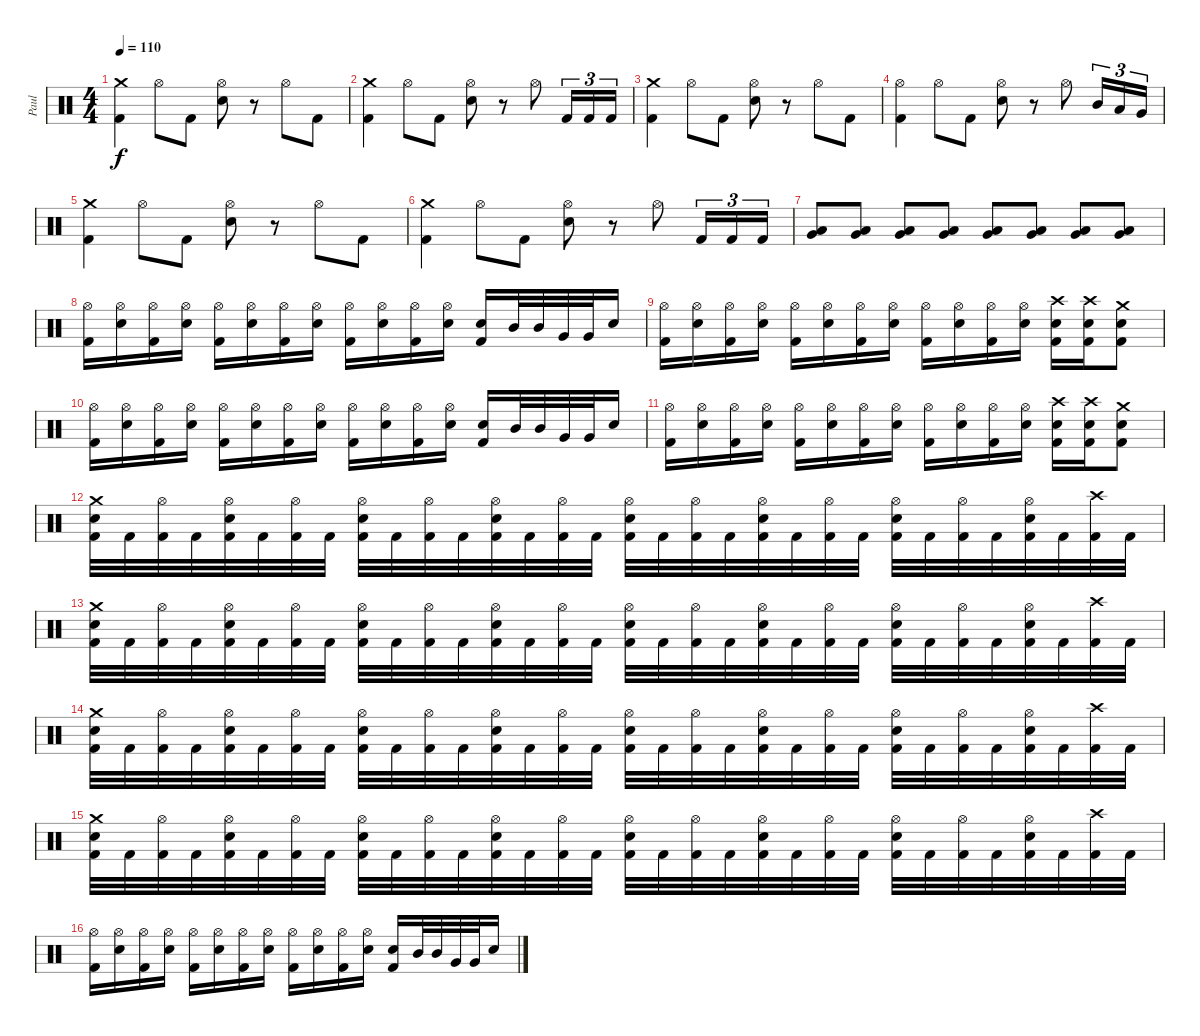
\track ("Paul" "Paul") {solo instrument percussion}
\staff {score}
\articulation defaults
\ts (4 4)
\tempo 110
\clef neutral
\ks c
("Crash medium (hit)" "Kick (hit) 2").4{dy f} "Hi-Hat (open)".8 "Kick (hit) 2".8 ("Hi-Hat (open)" "Electric Snare (hit)").8 r.8 "Hi-Hat (open)".8 "Kick (hit) 2".8 |
("Crash medium (hit)" "Kick (hit) 2").4 "Hi-Hat (open)".8 "Kick (hit) 2".8 ("Hi-Hat (open)" "Electric Snare (hit)").8 r.8 "Hi-Hat (open)".8 "Kick (hit) 2".16{tu (3 2)} "Kick (hit) 2".16{tu (3 2)} "Kick (hit) 2".16{tu (3 2)} |
("Crash medium (hit)" "Kick (hit) 2").4 "Hi-Hat (open)".8 "Kick (hit) 2".8 ("Hi-Hat (open)" "Electric Snare (hit)").8 r.8 "Hi-Hat (open)".8 "Kick (hit) 2".8 |
("Hi-Hat (open)" "Kick (hit) 2").4 "Hi-Hat (open)".8 "Kick (hit) 2".8 ("Hi-Hat (open)" "Electric Snare (hit)").8 r.8 "Hi-Hat (open)".8 "Mid Tom (hit)".16{tu (3 2)} "Low Tom (hit)".16{tu (3 2)} "Very Low Tom (hit)".16{tu (3 2)} |
("Crash medium (hit)" "Kick (hit) 2").4 "Hi-Hat (open)".8 "Kick (hit) 2".8 ("Hi-Hat (open)" "Electric Snare (hit)").8 r.8 "Hi-Hat (open)".8 "Kick (hit) 2".8 |
("Crash medium (hit)" "Kick (hit) 2").4 "Hi-Hat (open)".8 "Kick (hit) 2".8 ("Hi-Hat (open)" "Electric Snare (hit)").8 r.8 "Hi-Hat (open)".8 "Kick (hit) 2".16{tu (3 2)} "Kick (hit) 2".16{tu (3 2)} "Kick (hit) 2".16{tu (3 2)} |
("Low Floor Tom (hit)" "Very Low Tom (hit)").8 ("Low Floor Tom (hit)" "Very Low Tom (hit)").8 ("Low Floor Tom (hit)" "Very Low Tom (hit)").8 ("Low Floor Tom (hit)" "Very Low Tom (hit)").8 ("Low Floor Tom (hit)" "Very Low Tom (hit)").8 ("Low Floor Tom (hit)" "Very Low Tom (hit)").8 ("Low Floor Tom (hit)" "Very Low Tom (hit)").8 ("Low Floor Tom (hit)" "Very Low Tom (hit)").8 |
("Hi-Hat (open)" "Kick (hit) 2").16 ("Hi-Hat (open)" "Electric Snare (hit)").16 ("Hi-Hat (open)" "Kick (hit) 2").16 ("Hi-Hat (open)" "Electric Snare (hit)").16 ("Hi-Hat (open)" "Kick (hit) 2").16 ("Hi-Hat (open)" "Electric Snare (hit)").16 ("Hi-Hat (open)" "Kick (hit) 2").16 ("Hi-Hat (open)" "Electric Snare (hit)").16 ("Hi-Hat (open)" "Kick (hit) 2").16 ("Hi-Hat (open)" "Electric Snare (hit)").16 ("Hi-Hat (open)" "Kick (hit) 2").16 ("Hi-Hat (open)" "Electric Snare (hit)").16 ("Electric Snare (hit)" "Kick (hit) 2").16 "Mid Tom (hit)".32 "Mid Tom (hit)".32 "Very Low Tom (hit)".32 "Very Low Tom (hit)".32 "Electric Snare (hit)".16 |
("Hi-Hat (open)" "Kick (hit) 2").16 ("Hi-Hat (open)" "Electric Snare (hit)").16 ("Hi-Hat (open)" "Kick (hit) 2").16 ("Hi-Hat (open)" "Electric Snare (hit)").16 ("Hi-Hat (open)" "Kick (hit) 2").16 ("Hi-Hat (open)" "Electric Snare (hit)").16 ("Hi-Hat (open)" "Kick (hit) 2").16 ("Hi-Hat (open)" "Electric Snare (hit)").16 ("Hi-Hat (open)" "Kick (hit) 2").16 ("Hi-Hat (open)" "Electric Snare (hit)").16 ("Hi-Hat (open)" "Kick (hit) 2").16 ("Hi-Hat (open)" "Electric Snare (hit)").16 ("Crash high (hit)" "Electric Snare (hit)" "Kick (hit) 2").16 ("Crash high (hit)" "Electric Snare (hit)" "Kick (hit) 2").16 ("Crash medium (hit)" "Electric Snare (hit)" "Kick (hit) 2").8 |
("Hi-Hat (open)" "Kick (hit) 2").16 ("Hi-Hat (open)" "Electric Snare (hit)").16 ("Hi-Hat (open)" "Kick (hit) 2").16 ("Hi-Hat (open)" "Electric Snare (hit)").16 ("Hi-Hat (open)" "Kick (hit) 2").16 ("Hi-Hat (open)" "Electric Snare (hit)").16 ("Hi-Hat (open)" "Kick (hit) 2").16 ("Hi-Hat (open)" "Electric Snare (hit)").16 ("Hi-Hat (open)" "Kick (hit) 2").16 ("Hi-Hat (open)" "Electric Snare (hit)").16 ("Hi-Hat (open)" "Kick (hit) 2").16 ("Hi-Hat (open)" "Electric Snare (hit)").16 ("Electric Snare (hit)" "Kick (hit) 2").16 "Mid Tom (hit)".32 "Mid Tom (hit)".32 "Very Low Tom (hit)".32 "Very Low Tom (hit)".32 "Electric Snare (hit)".16 |
("Hi-Hat (open)" "Kick (hit) 2").16 ("Hi-Hat (open)" "Electric Snare (hit)").16 ("Hi-Hat (open)" "Kick (hit) 2").16 ("Hi-Hat (open)" "Electric Snare (hit)").16 ("Hi-Hat (open)" "Kick (hit) 2").16 ("Hi-Hat (open)" "Electric Snare (hit)").16 ("Hi-Hat (open)" "Kick (hit) 2").16 ("Hi-Hat (open)" "Electric Snare (hit)").16 ("Hi-Hat (open)" "Kick (hit) 2").16 ("Hi-Hat (open)" "Electric Snare (hit)").16 ("Hi-Hat (open)" "Kick (hit) 2").16 ("Hi-Hat (open)" "Electric Snare (hit)").16 ("Crash high (hit)" "Electric Snare (hit)" "Kick (hit) 2").16 ("Crash high (hit)" "Electric Snare (hit)" "Kick (hit) 2").16 ("Crash medium (hit)" "Electric Snare (hit)" "Kick (hit) 2").8 |
("Crash medium (hit)" "Electric Snare (hit)" "Kick (hit) 2").32 "Kick (hit) 2".32 ("Hi-Hat (open)" "Kick (hit) 2").32 "Kick (hit) 2".32 ("Hi-Hat (open)" "Electric Snare (hit)" "Kick (hit) 2").32 "Kick (hit) 2".32 ("Hi-Hat (open)" "Kick (hit) 2").32 "Kick (hit) 2".32 ("Hi-Hat (open)" "Electric Snare (hit)" "Kick (hit) 2").32 "Kick (hit) 2".32 ("Hi-Hat (open)" "Kick (hit) 2").32 "Kick (hit) 2".32 ("Hi-Hat (open)" "Electric Snare (hit)" "Kick (hit) 2").32 "Kick (hit) 2".32 ("Hi-Hat (open)" "Kick (hit) 2").32 "Kick (hit) 2".32 ("Hi-Hat (open)" "Electric Snare (hit)" "Kick (hit) 2").32 "Kick (hit) 2".32 ("Hi-Hat (open)" "Kick (hit) 2").32 "Kick (hit) 2".32 ("Hi-Hat (open)" "Electric Snare (hit)" "Kick (hit) 2").32 "Kick (hit) 2".32 ("Hi-Hat (open)" "Kick (hit) 2").32 "Kick (hit) 2".32 ("Hi-Hat (open)" "Electric Snare (hit)" "Kick (hit) 2").32 "Kick (hit) 2".32 ("Hi-Hat (open)" "Kick (hit) 2").32 "Kick (hit) 2".32 ("Hi-Hat (open)" "Electric Snare (hit)" "Kick (hit) 2").32 "Kick (hit) 2".32 ("Crash high (hit)" "Kick (hit) 2").32 "Kick (hit) 2".32 |
("Crash medium (hit)" "Electric Snare (hit)" "Kick (hit) 2").32 "Kick (hit) 2".32 ("Hi-Hat (open)" "Kick (hit) 2").32 "Kick (hit) 2".32 ("Hi-Hat (open)" "Electric Snare (hit)" "Kick (hit) 2").32 "Kick (hit) 2".32 ("Hi-Hat (open)" "Kick (hit) 2").32 "Kick (hit) 2".32 ("Hi-Hat (open)" "Electric Snare (hit)" "Kick (hit) 2").32 "Kick (hit) 2".32 ("Hi-Hat (open)" "Kick (hit) 2").32 "Kick (hit) 2".32 ("Hi-Hat (open)" "Electric Snare (hit)" "Kick (hit) 2").32 "Kick (hit) 2".32 ("Hi-Hat (open)" "Kick (hit) 2").32 "Kick (hit) 2".32 ("Hi-Hat (open)" "Electric Snare (hit)" "Kick (hit) 2").32 "Kick (hit) 2".32 ("Hi-Hat (open)" "Kick (hit) 2").32 "Kick (hit) 2".32 ("Hi-Hat (open)" "Electric Snare (hit)" "Kick (hit) 2").32 "Kick (hit) 2".32 ("Hi-Hat (open)" "Kick (hit) 2").32 "Kick (hit) 2".32 ("Hi-Hat (open)" "Electric Snare (hit)" "Kick (hit) 2").32 "Kick (hit) 2".32 ("Hi-Hat (open)" "Kick (hit) 2").32 "Kick (hit) 2".32 ("Hi-Hat (open)" "Electric Snare (hit)" "Kick (hit) 2").32 "Kick (hit) 2".32 ("Crash high (hit)" "Kick (hit) 2").32 "Kick (hit) 2".32 |
("Crash medium (hit)" "Electric Snare (hit)" "Kick (hit) 2").32 "Kick (hit) 2".32 ("Hi-Hat (open)" "Kick (hit) 2").32 "Kick (hit) 2".32 ("Hi-Hat (open)" "Electric Snare (hit)" "Kick (hit) 2").32 "Kick (hit) 2".32 ("Hi-Hat (open)" "Kick (hit) 2").32 "Kick (hit) 2".32 ("Hi-Hat (open)" "Electric Snare (hit)" "Kick (hit) 2").32 "Kick (hit) 2".32 ("Hi-Hat (open)" "Kick (hit) 2").32 "Kick (hit) 2".32 ("Hi-Hat (open)" "Electric Snare (hit)" "Kick (hit) 2").32 "Kick (hit) 2".32 ("Hi-Hat (open)" "Kick (hit) 2").32 "Kick (hit) 2".32 ("Hi-Hat (open)" "Electric Snare (hit)" "Kick (hit) 2").32 "Kick (hit) 2".32 ("Hi-Hat (open)" "Kick (hit) 2").32 "Kick (hit) 2".32 ("Hi-Hat (open)" "Electric Snare (hit)" "Kick (hit) 2").32 "Kick (hit) 2".32 ("Hi-Hat (open)" "Kick (hit) 2").32 "Kick (hit) 2".32 ("Hi-Hat (open)" "Electric Snare (hit)" "Kick (hit) 2").32 "Kick (hit) 2".32 ("Hi-Hat (open)" "Kick (hit) 2").32 "Kick (hit) 2".32 ("Hi-Hat (open)" "Electric Snare (hit)" "Kick (hit) 2").32 "Kick (hit) 2".32 ("Crash high (hit)" "Kick (hit) 2").32 "Kick (hit) 2".32 |
("Crash medium (hit)" "Electric Snare (hit)" "Kick (hit) 2").32 "Kick (hit) 2".32 ("Hi-Hat (open)" "Kick (hit) 2").32 "Kick (hit) 2".32 ("Hi-Hat (open)" "Electric Snare (hit)" "Kick (hit) 2").32 "Kick (hit) 2".32 ("Hi-Hat (open)" "Kick (hit) 2").32 "Kick (hit) 2".32 ("Hi-Hat (open)" "Electric Snare (hit)" "Kick (hit) 2").32 "Kick (hit) 2".32 ("Hi-Hat (open)" "Kick (hit) 2").32 "Kick (hit) 2".32 ("Hi-Hat (open)" "Electric Snare (hit)" "Kick (hit) 2").32 "Kick (hit) 2".32 ("Hi-Hat (open)" "Kick (hit) 2").32 "Kick (hit) 2".32 ("Hi-Hat (open)" "Electric Snare (hit)" "Kick (hit) 2").32 "Kick (hit) 2".32 ("Hi-Hat (open)" "Kick (hit) 2").32 "Kick (hit) 2".32 ("Hi-Hat (open)" "Electric Snare (hit)" "Kick (hit) 2").32 "Kick (hit) 2".32 ("Hi-Hat (open)" "Kick (hit) 2").32 "Kick (hit) 2".32 ("Hi-Hat (open)" "Electric Snare (hit)" "Kick (hit) 2").32 "Kick (hit) 2".32 ("Hi-Hat (open)" "Kick (hit) 2").32 "Kick (hit) 2".32 ("Hi-Hat (open)" "Electric Snare (hit)" "Kick (hit) 2").32 "Kick (hit) 2".32 ("Crash high (hit)" "Kick (hit) 2").32 "Kick (hit) 2".32 |
("Hi-Hat (open)" "Kick (hit) 2").16 ("Hi-Hat (open)" "Electric Snare (hit)").16 ("Hi-Hat (open)" "Kick (hit) 2").16 ("Hi-Hat (open)" "Electric Snare (hit)").16 ("Hi-Hat (open)" "Kick (hit) 2").16 ("Hi-Hat (open)" "Electric Snare (hit)").16 ("Hi-Hat (open)" "Kick (hit) 2").16 ("Hi-Hat (open)" "Electric Snare (hit)").16 ("Hi-Hat (open)" "Kick (hit) 2").16 ("Hi-Hat (open)" "Electric Snare (hit)").16 ("Hi-Hat (open)" "Kick (hit) 2").16 ("Hi-Hat (open)" "Electric Snare (hit)").16 ("Electric Snare (hit)" "Kick (hit) 2").16 "Mid Tom (hit)".32 "Mid Tom (hit)".32 "Very Low Tom (hit)".32 "Very Low Tom (hit)".32 "Electric Snare (hit)".16
